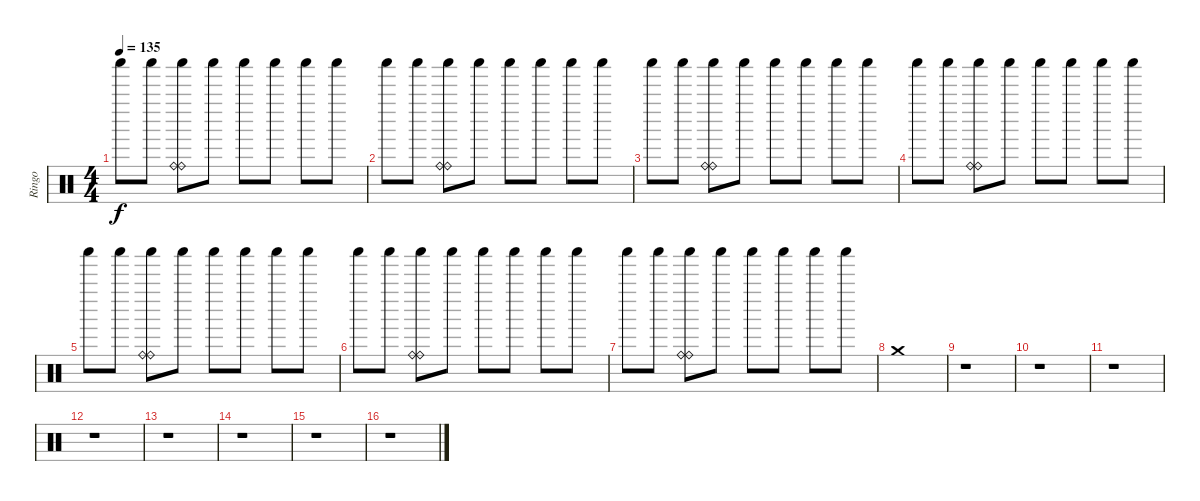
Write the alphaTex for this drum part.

\track ("Ringo" "Ringo") {instrument percussion}
\staff {score}
\articulation defaults
\ts (4 4)
\tempo 135
\clef neutral
\ks c "Shaker (hit)".8{dy f volume 7} "Shaker (hit)".8
("Ride (bell)" "Shaker (hit)" "Ride (bell)").8{volume 16} "Shaker (hit)".8{volume 7} "Shaker (hit)".8 "Shaker (hit)".8 "Shaker (hit)".8 "Shaker (hit)".8 |
"Shaker (hit)".8{volume 7} "Shaker (hit)".8 ("Ride (bell)" "Shaker (hit)" "Ride (bell)").8{volume 16} "Shaker (hit)".8{volume 7} "Shaker (hit)".8 "Shaker (hit)".8 "Shaker (hit)".8 "Shaker (hit)".8 |
"Shaker (hit)".8{volume 7} "Shaker (hit)".8 ("Ride (bell)" "Shaker (hit)" "Ride (bell)").8{volume 16} "Shaker (hit)".8{volume 7} "Shaker (hit)".8 "Shaker (hit)".8 "Shaker (hit)".8 "Shaker (hit)".8 |
"Shaker (hit)".8{volume 7} "Shaker (hit)".8 ("Ride (bell)" "Shaker (hit)" "Ride (bell)").8{volume 16} "Shaker (hit)".8{volume 7} "Shaker (hit)".8 "Shaker (hit)".8 "Shaker (hit)".8 "Shaker (hit)".8 |
"Shaker (hit)".8{volume 7} "Shaker (hit)".8 ("Ride (bell)" "Shaker (hit)" "Ride (bell)").8{volume 16} "Shaker (hit)".8{volume 7} "Shaker (hit)".8 "Shaker (hit)".8 "Shaker (hit)".8 "Shaker (hit)".8 |
"Shaker (hit)".8{volume 7} "Shaker (hit)".8 ("Ride (bell)" "Shaker (hit)" "Ride (bell)").8{volume 16} "Shaker (hit)".8{volume 7} "Shaker (hit)".8 "Shaker (hit)".8 "Shaker (hit)".8 "Shaker (hit)".8 |
"Shaker (hit)".8{volume 7} "Shaker (hit)".8 ("Ride (bell)" "Shaker (hit)" "Ride (bell)").8{volume 16} "Shaker (hit)".8{volume 7} "Shaker (hit)".8 "Shaker (hit)".8 "Shaker (hit)".8 "Shaker (hit)".8 |
"Crash medium (hit)".1 |
r.1 |
r.1 |
r.1 |
r.1 |
r.1 |
r.1 |
r.1 |
r.1
